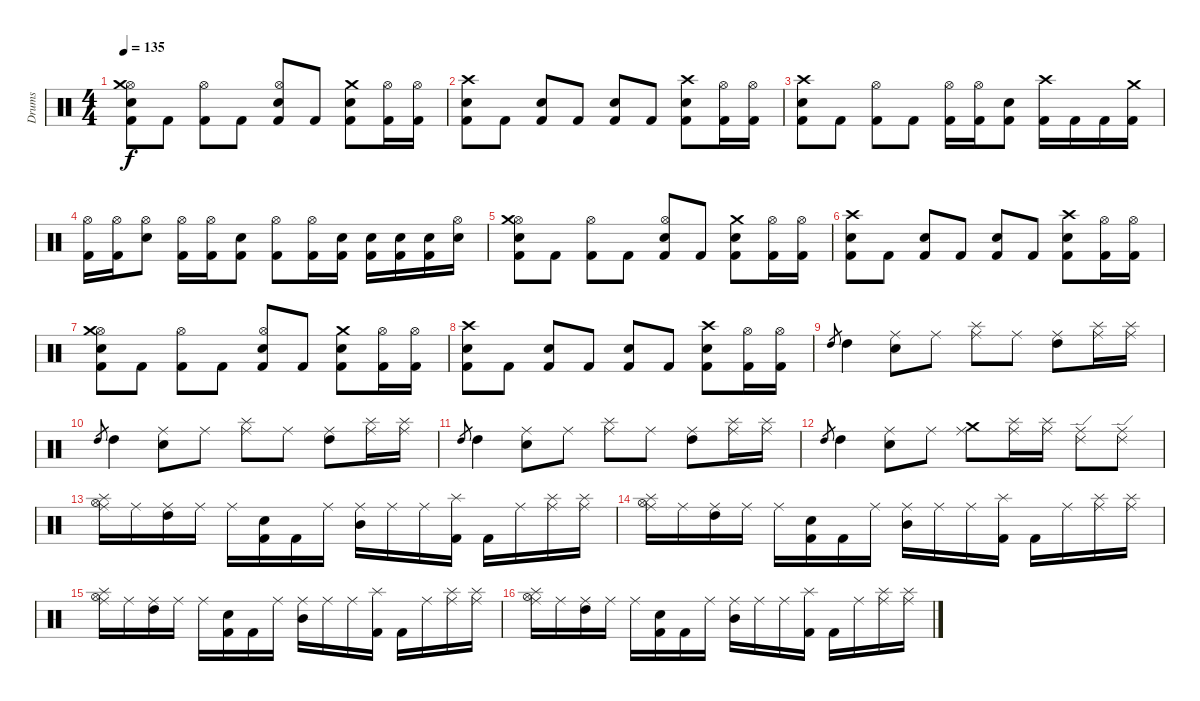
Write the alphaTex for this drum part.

\track ("Drums" "Drums") {instrument percussion}
\staff {score}
\articulation defaults
\ts (4 4)
\tempo 135
\clef neutral
\ks c
("Kick (hit) 2" "Hi-Hat (open)" "Electric Snare (hit)" "Crash medium (hit)").8{dy f} "Kick (hit) 2".8 ("Kick (hit) 2" "Hi-Hat (open)").8 "Kick (hit) 2".8 ("Kick (hit) 2" "Hi-Hat (open)" "Electric Snare (hit)").8 "Kick (hit) 2".8 ("Kick (hit) 2" "Crash medium (hit)" "Electric Snare (hit)").8 ("Kick (hit) 2" "Hi-Hat (open)").16 ("Kick (hit) 2" "Hi-Hat (open)").16 |
("Kick (hit) 2" "Electric Snare (hit)" "Crash high (hit)").8 "Kick (hit) 2".8 ("Kick (hit) 2" "Snare (hit) 2").8 "Kick (hit) 2".8 ("Kick (hit) 2" "Electric Snare (hit)").8 "Kick (hit) 2".8 ("Kick (hit) 2" "Crash high (hit)" "Electric Snare (hit)").8 ("Kick (hit) 2" "Hi-Hat (open)").16 ("Kick (hit) 2" "Hi-Hat (open)").16 |
("Kick (hit) 2" "Electric Snare (hit)" "Crash high (hit)").8 "Kick (hit) 2".8 ("Kick (hit) 2" "Hi-Hat (open)").8 "Kick (hit) 2".8 ("Kick (hit) 2" "Hi-Hat (open)").16 ("Kick (hit) 2" "Hi-Hat (open)").16 ("Kick (hit) 2" "Electric Snare (hit)").8 ("Kick (hit) 2" "Crash high (hit)").16 "Kick (hit) 2".16 "Kick (hit) 2".16 ("Kick (hit) 2" "Crash medium (hit)").16 |
("Kick (hit) 2" "Hi-Hat (open)").16 ("Kick (hit) 2" "Hi-Hat (open)").16 ("Hi-Hat (open)" "Electric Snare (hit)").8 ("Kick (hit) 2" "Hi-Hat (open)").16 ("Kick (hit) 2" "Hi-Hat (open)").16 ("Kick (hit) 2" "Electric Snare (hit)").8 ("Kick (hit) 2" "Hi-Hat (open)").8 ("Kick (hit) 2" "Hi-Hat (open)").16 ("Kick (hit) 2" "Electric Snare (hit)").16 ("Kick (hit) 2" "Electric Snare (hit)").16 ("Kick (hit) 2" "Electric Snare (hit)").16 ("Kick (hit) 2" "Electric Snare (hit)").16 ("Hi-Hat (open)" "Electric Snare (hit)").16 |
("Kick (hit) 2" "Hi-Hat (open)" "Electric Snare (hit)" "Crash medium (hit)").8 "Kick (hit) 2".8 ("Kick (hit) 2" "Hi-Hat (open)").8 "Kick (hit) 2".8 ("Kick (hit) 2" "Hi-Hat (open)" "Electric Snare (hit)").8 "Kick (hit) 2".8 ("Kick (hit) 2" "Crash medium (hit)" "Electric Snare (hit)").8 ("Kick (hit) 2" "Hi-Hat (open)").16 ("Kick (hit) 2" "Hi-Hat (open)").16 |
("Kick (hit) 2" "Electric Snare (hit)" "Crash high (hit)").8 "Kick (hit) 2".8 ("Kick (hit) 2" "Snare (hit) 2").8 "Kick (hit) 2".8 ("Kick (hit) 2" "Electric Snare (hit)").8 "Kick (hit) 2".8 ("Kick (hit) 2" "Crash high (hit)" "Electric Snare (hit)").8 ("Kick (hit) 2" "Hi-Hat (open)").16 ("Kick (hit) 2" "Hi-Hat (open)").16 |
("Kick (hit) 2" "Hi-Hat (open)" "Electric Snare (hit)" "Crash medium (hit)").8 "Kick (hit) 2".8 ("Kick (hit) 2" "Hi-Hat (open)").8 "Kick (hit) 2".8 ("Kick (hit) 2" "Hi-Hat (open)" "Electric Snare (hit)").8 "Kick (hit) 2".8 ("Kick (hit) 2" "Crash medium (hit)" "Electric Snare (hit)").8 ("Kick (hit) 2" "Hi-Hat (open)").16 ("Kick (hit) 2" "Hi-Hat (open)").16 |
("Kick (hit) 2" "Electric Snare (hit)" "Crash high (hit)").8 "Kick (hit) 2".8 ("Kick (hit) 2" "Snare (hit) 2").8 "Kick (hit) 2".8 ("Kick (hit) 2" "Electric Snare (hit)").8 "Kick (hit) 2".8 ("Kick (hit) 2" "Crash high (hit)" "Electric Snare (hit)").8 ("Kick (hit) 2" "Hi-Hat (open)").16 ("Kick (hit) 2" "Hi-Hat (open)").16 |
"High Tom (hit)".8{gr} "High Tom (hit)".4 ("Ride (middle)" "Electric Snare (hit)").8 "Ride (middle)".8 ("Ride (middle)" "Splash (hit)").8 "Ride (middle)".8 ("Ride (middle)" "High Tom (hit)").8 ("Ride (middle)" "Splash (hit)").16 ("Ride (middle)" "Splash (hit)").16 |
"High Tom (hit)".8{gr} "High Tom (hit)".4 ("Ride (middle)" "Electric Snare (hit)").8 "Ride (middle)".8 ("Ride (middle)" "Splash (hit)").8 "Ride (middle)".8 ("Ride (middle)" "High Tom (hit)").8 ("Ride (middle)" "Splash (hit)").16 ("Ride (middle)" "Splash (hit)").16 |
"High Tom (hit)".8{gr} "High Tom (hit)".4 ("Ride (middle)" "Electric Snare (hit)").8 "Ride (middle)".8 ("Ride (middle)" "Splash (hit)").8 "Ride (middle)".8 ("Ride (middle)" "High Tom (hit)").8 ("Ride (middle)" "Splash (hit)").16 ("Ride (middle)" "Splash (hit)").16 |
"High Tom (hit)".8{gr} "High Tom (hit)".4 ("Ride (middle)" "Electric Snare (hit)").8 "Ride (middle)".8 ("Ride (middle)" "Crash medium (hit)").8 ("Ride (middle)" "Splash (hit)").16 ("Ride (middle)" "Splash (hit)").16 ("Ride (middle)" "Ride (edge) 2").8 ("Ride (middle)" "Ride (edge) 2").8 |
("Ride (middle)" "Hi-Hat (open)" "Splash (hit)").16 "Ride (middle)".16 ("Ride (middle)" "High Tom (hit)").16 "Ride (middle)".16 "Ride (middle)".16 ("Kick (hit) 2" "Electric Snare (hit)").16 "Kick (hit) 2".16 "Ride (middle)".16 ("Ride (middle)" "Mid Tom (hit)").16 "Ride (middle)".16 "Ride (middle)".16 ("Kick (hit) 2" "Splash (hit)").16 "Kick (hit) 2".16 "Ride (middle)".16 ("Ride (middle)" "Splash (hit)").16 ("Ride (middle)" "Splash (hit)").16 |
("Ride (middle)" "Hi-Hat (open)" "Splash (hit)").16 "Ride (middle)".16 ("Ride (middle)" "High Tom (hit)").16 "Ride (middle)".16 "Ride (middle)".16 ("Kick (hit) 2" "Electric Snare (hit)").16 "Kick (hit) 2".16 "Ride (middle)".16 ("Ride (middle)" "Mid Tom (hit)").16 "Ride (middle)".16 "Ride (middle)".16 ("Kick (hit) 2" "Splash (hit)").16 "Kick (hit) 2".16 "Ride (middle)".16 ("Ride (middle)" "Splash (hit)").16 ("Ride (middle)" "Splash (hit)").16 |
("Ride (middle)" "Hi-Hat (open)" "Splash (hit)").16 "Ride (middle)".16 ("Ride (middle)" "High Tom (hit)").16 "Ride (middle)".16 "Ride (middle)".16 ("Kick (hit) 2" "Electric Snare (hit)").16 "Kick (hit) 2".16 "Ride (middle)".16 ("Ride (middle)" "Mid Tom (hit)").16 "Ride (middle)".16 "Ride (middle)".16 ("Kick (hit) 2" "Splash (hit)").16 "Kick (hit) 2".16 "Ride (middle)".16 ("Ride (middle)" "Splash (hit)").16 ("Ride (middle)" "Splash (hit)").16 |
("Ride (middle)" "Hi-Hat (open)" "Splash (hit)").16 "Ride (middle)".16 ("Ride (middle)" "High Tom (hit)").16 "Ride (middle)".16 "Ride (middle)".16 ("Kick (hit) 2" "Electric Snare (hit)").16 "Kick (hit) 2".16 "Ride (middle)".16 ("Ride (middle)" "Mid Tom (hit)").16 "Ride (middle)".16 "Ride (middle)".16 ("Kick (hit) 2" "Splash (hit)").16 "Kick (hit) 2".16 "Ride (middle)".16 ("Ride (middle)" "Splash (hit)").16 ("Ride (middle)" "Splash (hit)").16
